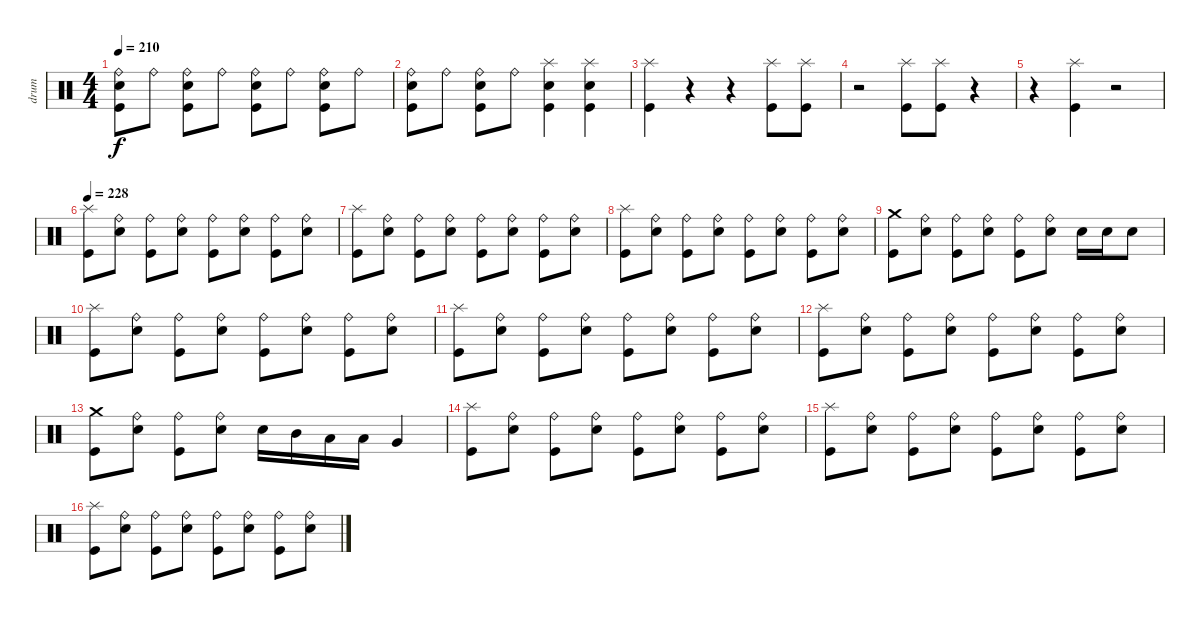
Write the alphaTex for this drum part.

\track ("drum" "drum") {instrument percussion}
\staff {score}
\articulation defaults
\ts (4 4)
\tempo 210
\clef neutral
\ks c
("Kick (hit)" "Electric Snare (hit)" "Ride (bell)").8{dy f} "Ride (bell)".8 ("Kick (hit)" "Electric Snare (hit)" "Ride (bell)").8 "Ride (bell)".8 ("Kick (hit)" "Electric Snare (hit)" "Ride (bell)").8 "Ride (bell)".8 ("Kick (hit)" "Electric Snare (hit)" "Ride (bell)").8 "Ride (bell)".8 |
("Kick (hit)" "Electric Snare (hit)" "Ride (bell)").8 "Ride (bell)".8 ("Kick (hit)" "Electric Snare (hit)" "Ride (bell)").8 "Ride (bell)".8 ("Kick (hit)" "Electric Snare (hit)" "Splash (hit)").4 ("Kick (hit)" "Electric Snare (hit)" "Splash (hit)").4 |
("Kick (hit)" "Splash (hit)").4 r.4 r.4 ("Kick (hit)" "Splash (hit)").8 ("Kick (hit)" "Splash (hit)").8 |
r.2 ("Kick (hit)" "Splash (hit)").8 ("Kick (hit)" "Splash (hit)").8 r.4 |
r.4 ("Kick (hit)" "Splash (hit)").4 r.2 |
\tempo 228
("Kick (hit)" "Splash (hit)").8 ("Electric Snare (hit)" "Ride (bell)").8 ("Kick (hit)" "Ride (bell)").8 ("Electric Snare (hit)" "Ride (bell)").8 ("Kick (hit)" "Ride (bell)").8 ("Electric Snare (hit)" "Ride (bell)").8 ("Kick (hit)" "Ride (bell)").8 ("Electric Snare (hit)" "Ride (bell)").8 |
("Kick (hit)" "Splash (hit)").8 ("Electric Snare (hit)" "Ride (bell)").8 ("Kick (hit)" "Ride (bell)").8 ("Electric Snare (hit)" "Ride (bell)").8 ("Kick (hit)" "Ride (bell)").8 ("Electric Snare (hit)" "Ride (bell)").8 ("Kick (hit)" "Ride (bell)").8 ("Electric Snare (hit)" "Ride (bell)").8 |
("Kick (hit)" "Splash (hit)").8 ("Electric Snare (hit)" "Ride (bell)").8 ("Kick (hit)" "Ride (bell)").8 ("Electric Snare (hit)" "Ride (bell)").8 ("Kick (hit)" "Ride (bell)").8 ("Electric Snare (hit)" "Ride (bell)").8 ("Kick (hit)" "Ride (bell)").8 ("Electric Snare (hit)" "Ride (bell)").8 |
("Kick (hit)" "Crash medium (hit)").8 ("Electric Snare (hit)" "Ride (bell)").8 ("Kick (hit)" "Ride (bell)").8 ("Electric Snare (hit)" "Ride (bell)").8 ("Kick (hit)" "Ride (bell)").8 ("Electric Snare (hit)" "Ride (bell)").8 "Electric Snare (hit)".16 "Electric Snare (hit)".16 "Electric Snare (hit)".8 |
("Kick (hit)" "Splash (hit)").8 ("Electric Snare (hit)" "Ride (bell)").8 ("Kick (hit)" "Ride (bell)").8 ("Electric Snare (hit)" "Ride (bell)").8 ("Kick (hit)" "Ride (bell)").8 ("Electric Snare (hit)" "Ride (bell)").8 ("Kick (hit)" "Ride (bell)").8 ("Electric Snare (hit)" "Ride (bell)").8 |
("Kick (hit)" "Splash (hit)").8 ("Electric Snare (hit)" "Ride (bell)").8 ("Kick (hit)" "Ride (bell)").8 ("Electric Snare (hit)" "Ride (bell)").8 ("Kick (hit)" "Ride (bell)").8 ("Electric Snare (hit)" "Ride (bell)").8 ("Kick (hit)" "Ride (bell)").8 ("Electric Snare (hit)" "Ride (bell)").8 |
("Kick (hit)" "Splash (hit)").8 ("Electric Snare (hit)" "Ride (bell)").8 ("Kick (hit)" "Ride (bell)").8 ("Electric Snare (hit)" "Ride (bell)").8 ("Kick (hit)" "Ride (bell)").8 ("Electric Snare (hit)" "Ride (bell)").8 ("Kick (hit)" "Ride (bell)").8 ("Electric Snare (hit)" "Ride (bell)").8 |
("Kick (hit)" "Crash medium (hit)").8 ("Electric Snare (hit)" "Ride (bell)").8 ("Kick (hit)" "Ride (bell)").8 ("Electric Snare (hit)" "Ride (bell)").8 "Electric Snare (hit)".16 "Mid Tom (hit)".16 "Low Tom (hit)".16 "Low Tom (hit)".16 "Very Low Tom (hit)".4 |
("Kick (hit)" "Splash (hit)").8 ("Electric Snare (hit)" "Ride (bell)").8 ("Kick (hit)" "Ride (bell)").8 ("Electric Snare (hit)" "Ride (bell)").8 ("Kick (hit)" "Ride (bell)").8 ("Electric Snare (hit)" "Ride (bell)").8 ("Kick (hit)" "Ride (bell)").8 ("Electric Snare (hit)" "Ride (bell)").8 |
("Kick (hit)" "Splash (hit)").8 ("Electric Snare (hit)" "Ride (bell)").8 ("Kick (hit)" "Ride (bell)").8 ("Electric Snare (hit)" "Ride (bell)").8 ("Kick (hit)" "Ride (bell)").8 ("Electric Snare (hit)" "Ride (bell)").8 ("Kick (hit)" "Ride (bell)").8 ("Electric Snare (hit)" "Ride (bell)").8 |
("Kick (hit)" "Splash (hit)").8 ("Electric Snare (hit)" "Ride (bell)").8 ("Kick (hit)" "Ride (bell)").8 ("Electric Snare (hit)" "Ride (bell)").8 ("Kick (hit)" "Ride (bell)").8 ("Electric Snare (hit)" "Ride (bell)").8 ("Kick (hit)" "Ride (bell)").8 ("Electric Snare (hit)" "Ride (bell)").8
